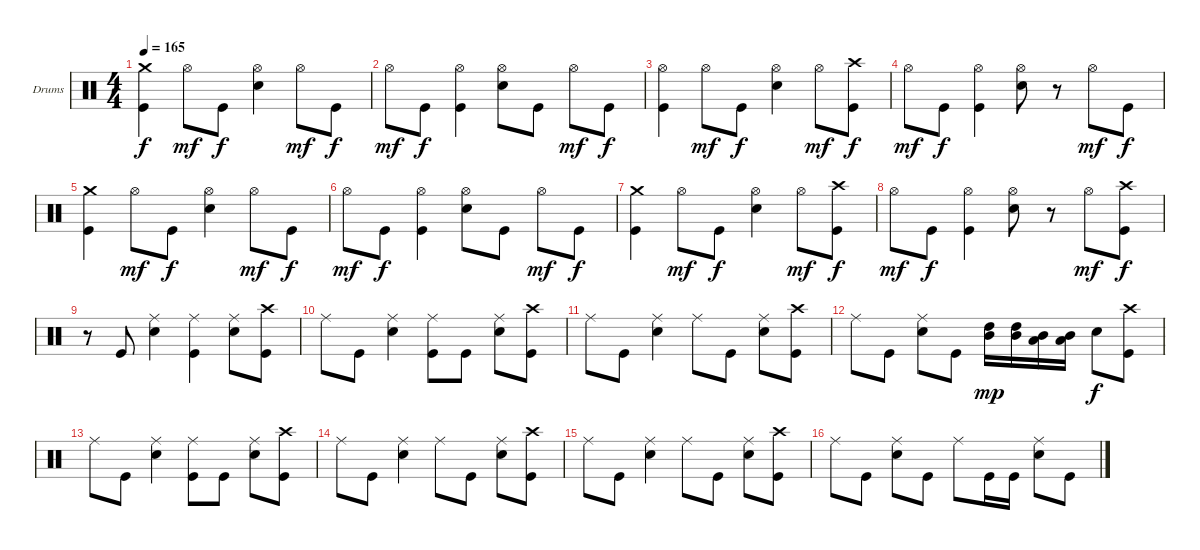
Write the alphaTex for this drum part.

\bracketExtendMode groupsimilarinstruments
\firstSystemTrackNameOrientation horizontal
\otherSystemsTrackNameOrientation horizontal
\track ("Drumkit" "Drums") {instrument percussion}
\staff {score}
\articulation defaults
\ts (4 4)
\tempo 165
\clef neutral
\ks c
("Kick (hit)" "Crash medium (hit)").4{dy f} "Hi-Hat (open)".8{dy mf} "Kick (hit)".8{dy f} ("Snare (hit) 2" "Hi-Hat (open)").4 "Hi-Hat (open)".8{dy mf} "Kick (hit)".8{dy f} |
"Hi-Hat (open)".8{dy mf} "Kick (hit)".8{dy f} ("Kick (hit)" "Hi-Hat (open)").4 ("Snare (hit) 2" "Hi-Hat (open)").8 "Kick (hit)".8 "Hi-Hat (open)".8{dy mf} "Kick (hit)".8{dy f} |
("Kick (hit)" "Hi-Hat (open)").4 "Hi-Hat (open)".8{dy mf} "Kick (hit)".8{dy f} ("Snare (hit) 2" "Hi-Hat (open)").4 "Hi-Hat (open)".8{dy mf} ("Kick (hit)" "Crash high (hit)").8{dy f} |
"Hi-Hat (open)".8{dy mf} "Kick (hit)".8{dy f} ("Kick (hit)" "Hi-Hat (open)").4 ("Snare (hit) 2" "Hi-Hat (open)").8 r.8 "Hi-Hat (open)".8{dy mf} "Kick (hit)".8{dy f} |
("Kick (hit)" "Crash medium (hit)").4 "Hi-Hat (open)".8{dy mf} "Kick (hit)".8{dy f} ("Snare (hit) 2" "Hi-Hat (open)").4 "Hi-Hat (open)".8{dy mf} "Kick (hit)".8{dy f} |
"Hi-Hat (open)".8{dy mf} "Kick (hit)".8{dy f} ("Kick (hit)" "Hi-Hat (open)").4 ("Snare (hit) 2" "Hi-Hat (open)").8 "Kick (hit)".8 "Hi-Hat (open)".8{dy mf} "Kick (hit)".8{dy f} |
("Kick (hit)" "Crash medium (hit)").4 "Hi-Hat (open)".8{dy mf} "Kick (hit)".8{dy f} ("Snare (hit) 2" "Hi-Hat (open)").4 "Hi-Hat (open)".8{dy mf} ("Kick (hit)" "Crash high (hit)").8{dy f} |
"Hi-Hat (open)".8{dy mf} "Kick (hit)".8{dy f} ("Kick (hit)" "Hi-Hat (open)").4 ("Snare (hit) 2" "Hi-Hat (open)").8 r.8 "Hi-Hat (open)".8{dy mf} ("Kick (hit)" "Crash high (hit)").8{dy f} |
r.8 "Kick (hit)".8 ("Snare (hit) 2" "Ride (middle)").4 ("Kick (hit)" "Ride (middle)").4 ("Snare (hit) 2" "Ride (middle)").8 ("Kick (hit)" "Crash high (hit)").8 |
"Ride (middle)".8 "Kick (hit)".8 ("Snare (hit) 2" "Ride (middle)").4 ("Kick (hit)" "Ride (middle)").8 "Kick (hit)".8 ("Snare (hit) 2" "Ride (middle)").8 ("Kick (hit)" "Crash high (hit)").8 |
"Ride (middle)".8 "Kick (hit)".8 ("Snare (hit) 2" "Ride (middle)").4 "Ride (middle)".8 "Kick (hit)".8 ("Snare (hit) 2" "Ride (middle)").8 ("Kick (hit)" "Crash high (hit)").8 |
"Ride (middle)".8 "Kick (hit)".8 ("Snare (hit) 2" "Ride (middle)").8 "Kick (hit)".8 ("Mid Tom (hit)" "High Tom (hit)").16{dy mp} ("Mid Tom (hit)" "High Tom (hit)").16 ("Low Tom (hit)" "Mid Tom (hit)").16 ("Low Tom (hit)" "Mid Tom (hit)").16 "Snare (hit) 2".8{dy f} ("Kick (hit)" "Crash high (hit)").8 |
"Ride (middle)".8 "Kick (hit)".8 ("Snare (hit) 2" "Ride (middle)").4 ("Kick (hit)" "Ride (middle)").8 "Kick (hit)".8 ("Snare (hit) 2" "Ride (middle)").8 ("Kick (hit)" "Crash high (hit)").8 |
"Ride (middle)".8 "Kick (hit)".8 ("Snare (hit) 2" "Ride (middle)").4 "Ride (middle)".8 "Kick (hit)".8 ("Snare (hit) 2" "Ride (middle)").8 ("Kick (hit)" "Crash high (hit)").8 |
"Ride (middle)".8 "Kick (hit)".8 ("Snare (hit) 2" "Ride (middle)").4 "Ride (middle)".8 "Kick (hit)".8 ("Snare (hit) 2" "Ride (middle)").8 ("Kick (hit)" "Crash high (hit)").8 |
"Ride (middle)".8 "Kick (hit)".8 ("Snare (hit) 2" "Ride (middle)").8 "Kick (hit)".8 "Ride (middle)".8 "Kick (hit)".16 "Kick (hit)".16 ("Snare (hit) 2" "Ride (middle)").8 "Kick (hit)".8
